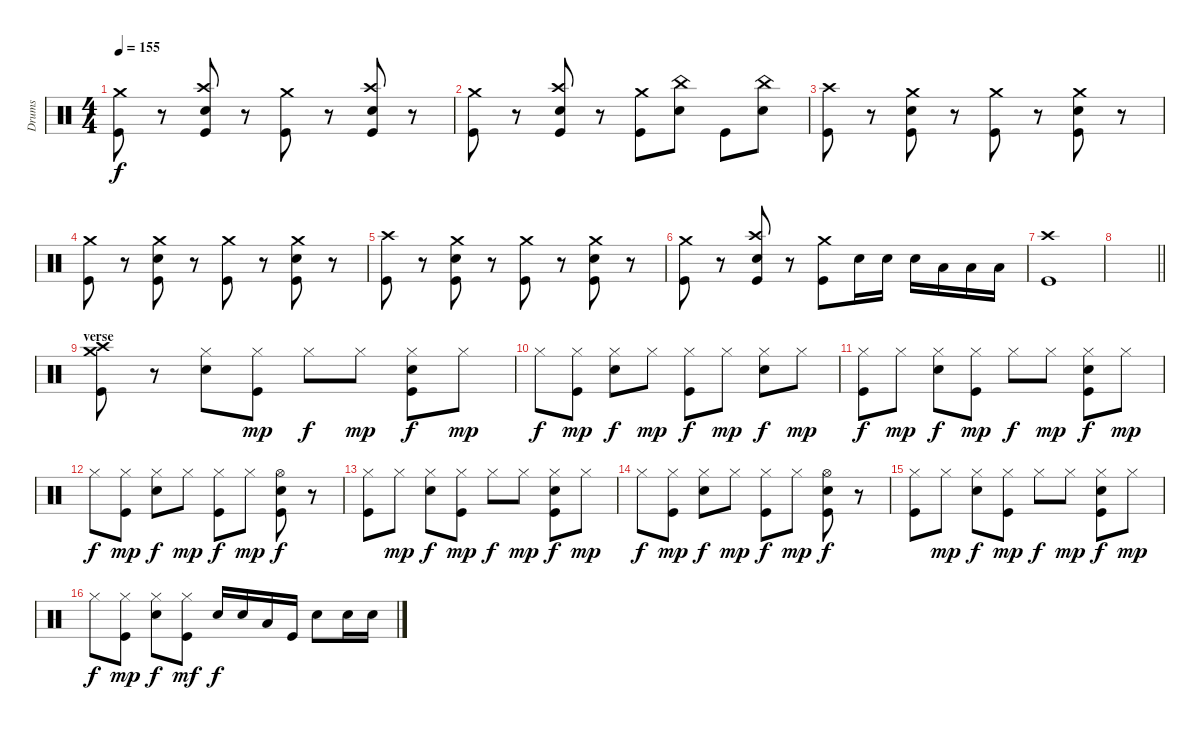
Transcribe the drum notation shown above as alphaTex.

\track ("Drums" "Drums") {instrument percussion}
\staff {score}
\articulation defaults
\ts (4 4)
\tempo 155
\clef neutral
\ks c
("Crash medium (hit)" "Kick (hit)").8{dy f} r.8 ("Crash high (hit)" "Electric Snare (hit)" "Kick (hit)").8 r.8 ("Crash medium (hit)" "Kick (hit)").8 r.8 ("Crash high (hit)" "Electric Snare (hit)" "Kick (hit)").8 r.8 |
("Crash medium (hit)" "Kick (hit)").8 r.8 ("Crash high (hit)" "Electric Snare (hit)" "Kick (hit)").8 r.8 ("Crash medium (hit)" "Kick (hit)").8 ("China (hit)" "Electric Snare (hit)").8 "Kick (hit)".8 ("China (hit)" "Electric Snare (hit)").8 |
("Crash high (hit)" "Kick (hit)").8 r.8 ("Crash medium (hit)" "Electric Snare (hit)" "Kick (hit)").8 r.8 ("Crash medium (hit)" "Kick (hit)").8 r.8 ("Crash medium (hit)" "Electric Snare (hit)" "Kick (hit)").8 r.8 |
("Crash medium (hit)" "Kick (hit)").8 r.8 ("Crash medium (hit)" "Electric Snare (hit)" "Kick (hit)").8 r.8 ("Crash medium (hit)" "Kick (hit)").8 r.8 ("Crash medium (hit)" "Electric Snare (hit)" "Kick (hit)").8 r.8 |
("Crash high (hit)" "Kick (hit)").8 r.8 ("Crash medium (hit)" "Electric Snare (hit)" "Kick (hit)").8 r.8 ("Crash medium (hit)" "Kick (hit)").8 r.8 ("Crash medium (hit)" "Electric Snare (hit)" "Kick (hit)").8 r.8 |
("Crash medium (hit)" "Kick (hit)").8 r.8 ("Crash high (hit)" "Electric Snare (hit)" "Kick (hit)").8 r.8 ("Crash medium (hit)" "Kick (hit)").8 "Electric Snare (hit)".16 "Electric Snare (hit)".16 "Electric Snare (hit)".16 "Low Tom (hit)".16 "Low Tom (hit)".16 "Low Tom (hit)".16 |
("Crash high (hit)" "Kick (hit)").1 |
\barLineRight lightlight
|
\section ("" "verse")
("Crash high (hit)" "Crash medium (hit)" "Kick (hit)").8 r.8 ("Hi-Hat (closed)" "Electric Snare (hit)").8 ("Hi-Hat (closed)" "Kick (hit)").8{dy mp} "Hi-Hat (closed)".8{dy f} "Hi-Hat (closed)".8{dy mp} ("Hi-Hat (closed)" "Electric Snare (hit)" "Kick (hit)").8{dy f} "Hi-Hat (closed)".8{dy mp} |
"Hi-Hat (closed)".8{dy f} ("Hi-Hat (closed)" "Kick (hit)").8{dy mp} ("Hi-Hat (closed)" "Electric Snare (hit)").8{dy f} "Hi-Hat (closed)".8{dy mp} ("Hi-Hat (closed)" "Kick (hit)").8{dy f} "Hi-Hat (closed)".8{dy mp} ("Hi-Hat (closed)" "Electric Snare (hit)").8{dy f} "Hi-Hat (closed)".8{dy mp} |
("Hi-Hat (closed)" "Kick (hit)").8{dy f} "Hi-Hat (closed)".8{dy mp} ("Hi-Hat (closed)" "Electric Snare (hit)").8{dy f} ("Hi-Hat (closed)" "Kick (hit)").8{dy mp} "Hi-Hat (closed)".8{dy f} "Hi-Hat (closed)".8{dy mp} ("Hi-Hat (closed)" "Electric Snare (hit)" "Kick (hit)").8{dy f} "Hi-Hat (closed)".8{dy mp} |
"Hi-Hat (closed)".8{dy f} ("Hi-Hat (closed)" "Kick (hit)").8{dy mp} ("Hi-Hat (closed)" "Electric Snare (hit)").8{dy f} "Hi-Hat (closed)".8{dy mp} ("Hi-Hat (closed)" "Kick (hit)").8{dy f} "Hi-Hat (closed)".8{dy mp} ("Hi-Hat (open)" "Electric Snare (hit)" "Kick (hit)").8{dy f} r.8 |
("Hi-Hat (closed)" "Kick (hit)").8 "Hi-Hat (closed)".8{dy mp} ("Hi-Hat (closed)" "Electric Snare (hit)").8{dy f} ("Hi-Hat (closed)" "Kick (hit)").8{dy mp} "Hi-Hat (closed)".8{dy f} "Hi-Hat (closed)".8{dy mp} ("Hi-Hat (closed)" "Electric Snare (hit)" "Kick (hit)").8{dy f} "Hi-Hat (closed)".8{dy mp} |
"Hi-Hat (closed)".8{dy f} ("Hi-Hat (closed)" "Kick (hit)").8{dy mp} ("Hi-Hat (closed)" "Electric Snare (hit)").8{dy f} "Hi-Hat (closed)".8{dy mp} ("Hi-Hat (closed)" "Kick (hit)").8{dy f} "Hi-Hat (closed)".8{dy mp} ("Hi-Hat (open)" "Electric Snare (hit)" "Kick (hit)").8{dy f} r.8 |
("Hi-Hat (closed)" "Kick (hit)").8 "Hi-Hat (closed)".8{dy mp} ("Hi-Hat (closed)" "Electric Snare (hit)").8{dy f} ("Hi-Hat (closed)" "Kick (hit)").8{dy mp} "Hi-Hat (closed)".8{dy f} "Hi-Hat (closed)".8{dy mp} ("Hi-Hat (closed)" "Electric Snare (hit)" "Kick (hit)").8{dy f} "Hi-Hat (closed)".8{dy mp} |
"Hi-Hat (closed)".8{dy f} ("Hi-Hat (closed)" "Kick (hit)").8{dy mp} ("Hi-Hat (closed)" "Electric Snare (hit)").8{dy f} ("Hi-Hat (closed)" "Kick (hit)").8{dy mf} "Electric Snare (hit)".16{dy f} "Electric Snare (hit)".16 "Low Tom (hit)".16 "Kick (hit)".16 "Electric Snare (hit)".8 "Electric Snare (hit)".16 "Electric Snare (hit)".16
